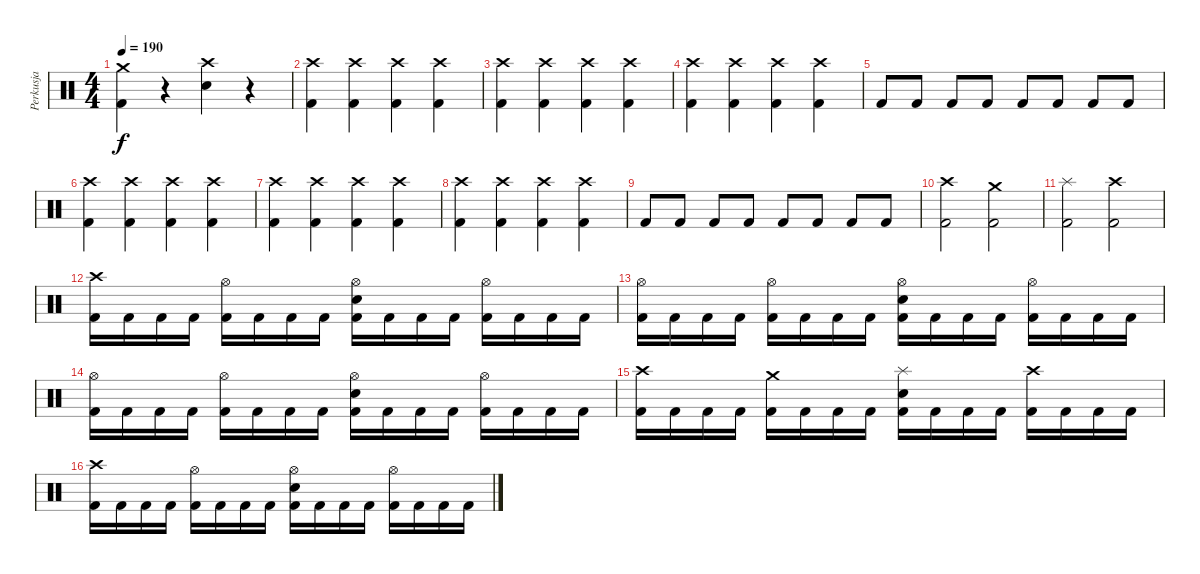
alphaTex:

\track ("Perkusja" "Perkusja") {instrument percussion}
\staff {score}
\articulation defaults
\ts (4 4)
\tempo 190
\clef neutral
\ks c
("Crash medium (hit)" "Kick (hit) 2").4{dy f} r.4 ("Crash high (hit)" "Electric Snare (hit)").4 r.4 |
("Crash high (hit)" "Kick (hit) 2").4 ("Crash high (hit)" "Kick (hit) 2").4 ("Crash high (hit)" "Kick (hit) 2").4 ("Crash high (hit)" "Kick (hit) 2").4 |
("Crash high (hit)" "Kick (hit) 2").4 ("Crash high (hit)" "Kick (hit) 2").4 ("Crash high (hit)" "Kick (hit) 2").4 ("Crash high (hit)" "Kick (hit) 2").4 |
("Crash high (hit)" "Kick (hit) 2").4 ("Crash high (hit)" "Kick (hit) 2").4 ("Crash high (hit)" "Kick (hit) 2").4 ("Crash high (hit)" "Kick (hit) 2").4 |
"Kick (hit) 2".8 "Kick (hit) 2".8 "Kick (hit) 2".8 "Kick (hit) 2".8 "Kick (hit) 2".8 "Kick (hit) 2".8 "Kick (hit) 2".8 "Kick (hit) 2".8 |
("Crash high (hit)" "Kick (hit) 2").4 ("Crash high (hit)" "Kick (hit) 2").4 ("Crash high (hit)" "Kick (hit) 2").4 ("Crash high (hit)" "Kick (hit) 2").4 |
("Crash high (hit)" "Kick (hit) 2").4 ("Crash high (hit)" "Kick (hit) 2").4 ("Crash high (hit)" "Kick (hit) 2").4 ("Crash high (hit)" "Kick (hit) 2").4 |
("Crash high (hit)" "Kick (hit) 2").4 ("Crash high (hit)" "Kick (hit) 2").4 ("Crash high (hit)" "Kick (hit) 2").4 ("Crash high (hit)" "Kick (hit) 2").4 |
"Kick (hit) 2".8 "Kick (hit) 2".8 "Kick (hit) 2".8 "Kick (hit) 2".8 "Kick (hit) 2".8 "Kick (hit) 2".8 "Kick (hit) 2".8 "Kick (hit) 2".8 |
("Crash high (hit)" "Kick (hit) 2").2 ("Crash medium (hit)" "Kick (hit) 2").2 |
("Splash (hit)" "Kick (hit) 2").2 ("Crash high (hit)" "Kick (hit) 2").2 |
("Crash high (hit)" "Kick (hit) 2").16 "Kick (hit) 2".16 "Kick (hit) 2".16 "Kick (hit) 2".16 ("Hi-Hat (open)" "Kick (hit) 2").16 "Kick (hit) 2".16 "Kick (hit) 2".16 "Kick (hit) 2".16 ("Hi-Hat (open)" "Electric Snare (hit)" "Kick (hit) 2").16 "Kick (hit) 2".16 "Kick (hit) 2".16 "Kick (hit) 2".16 ("Hi-Hat (open)" "Kick (hit) 2").16 "Kick (hit) 2".16 "Kick (hit) 2".16 "Kick (hit) 2".16 |
("Hi-Hat (open)" "Kick (hit) 2").16 "Kick (hit) 2".16 "Kick (hit) 2".16 "Kick (hit) 2".16 ("Hi-Hat (open)" "Kick (hit) 2").16 "Kick (hit) 2".16 "Kick (hit) 2".16 "Kick (hit) 2".16 ("Hi-Hat (open)" "Electric Snare (hit)" "Kick (hit) 2").16 "Kick (hit) 2".16 "Kick (hit) 2".16 "Kick (hit) 2".16 ("Hi-Hat (open)" "Kick (hit) 2").16 "Kick (hit) 2".16 "Kick (hit) 2".16 "Kick (hit) 2".16 |
("Hi-Hat (open)" "Kick (hit) 2").16 "Kick (hit) 2".16 "Kick (hit) 2".16 "Kick (hit) 2".16 ("Hi-Hat (open)" "Kick (hit) 2").16 "Kick (hit) 2".16 "Kick (hit) 2".16 "Kick (hit) 2".16 ("Hi-Hat (open)" "Electric Snare (hit)" "Kick (hit) 2").16 "Kick (hit) 2".16 "Kick (hit) 2".16 "Kick (hit) 2".16 ("Hi-Hat (open)" "Kick (hit) 2").16 "Kick (hit) 2".16 "Kick (hit) 2".16 "Kick (hit) 2".16 |
("Crash high (hit)" "Kick (hit) 2").16 "Kick (hit) 2".16 "Kick (hit) 2".16 "Kick (hit) 2".16 ("Crash medium (hit)" "Kick (hit) 2").16 "Kick (hit) 2".16 "Kick (hit) 2".16 "Kick (hit) 2".16 ("Splash (hit)" "Electric Snare (hit)" "Kick (hit) 2").16 "Kick (hit) 2".16 "Kick (hit) 2".16 "Kick (hit) 2".16 ("Crash high (hit)" "Kick (hit) 2").16 "Kick (hit) 2".16 "Kick (hit) 2".16 "Kick (hit) 2".16 |
("Crash high (hit)" "Kick (hit) 2").16 "Kick (hit) 2".16 "Kick (hit) 2".16 "Kick (hit) 2".16 ("Hi-Hat (open)" "Kick (hit) 2").16 "Kick (hit) 2".16 "Kick (hit) 2".16 "Kick (hit) 2".16 ("Hi-Hat (open)" "Electric Snare (hit)" "Kick (hit) 2").16 "Kick (hit) 2".16 "Kick (hit) 2".16 "Kick (hit) 2".16 ("Hi-Hat (open)" "Kick (hit) 2").16 "Kick (hit) 2".16 "Kick (hit) 2".16 "Kick (hit) 2".16
